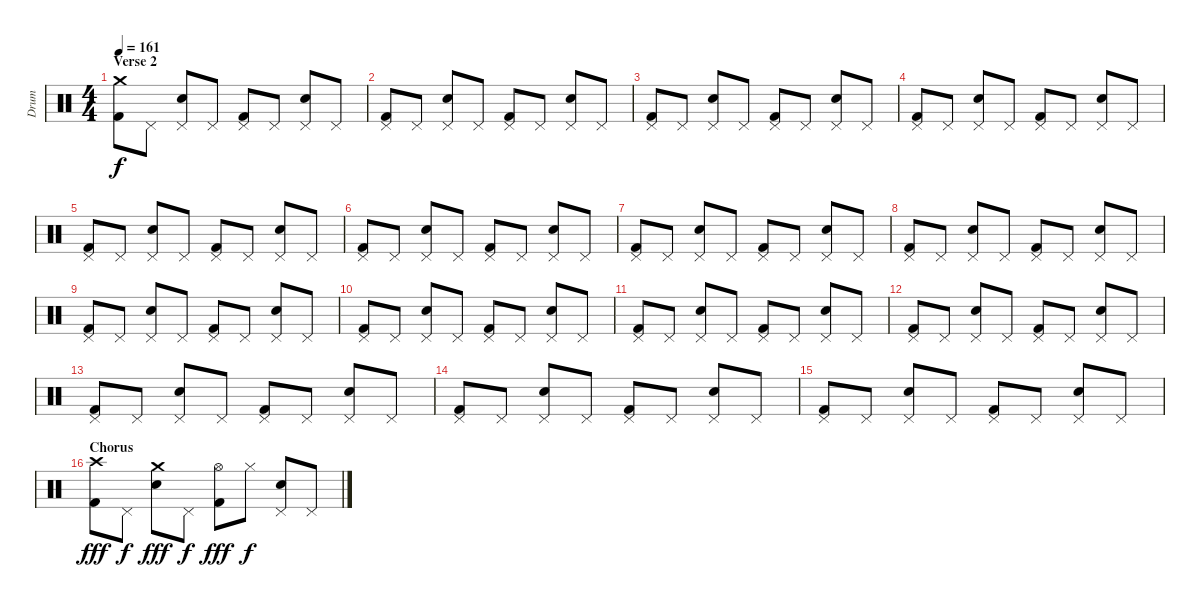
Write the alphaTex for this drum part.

\track ("Drum" "Drum") {instrument percussion}
\staff {score}
\articulation defaults
\ts (4 4)
\section ("" "Verse 2")
\tempo 161
\clef neutral
\ks c
("Crash medium (hit)" "Kick (hit) 2").8{dy f} "Pedal Hi-Hat (hit)".8 ("Pedal Hi-Hat (hit)" "Snare (hit) 2").8 "Pedal Hi-Hat (hit)".8 ("Pedal Hi-Hat (hit)" "Kick (hit) 2").8 "Pedal Hi-Hat (hit)".8 ("Pedal Hi-Hat (hit)" "Snare (hit) 2").8 "Pedal Hi-Hat (hit)".8 |
("Pedal Hi-Hat (hit)" "Kick (hit) 2").8 "Pedal Hi-Hat (hit)".8 ("Pedal Hi-Hat (hit)" "Snare (hit) 2").8 "Pedal Hi-Hat (hit)".8 ("Pedal Hi-Hat (hit)" "Kick (hit) 2").8 "Pedal Hi-Hat (hit)".8 ("Pedal Hi-Hat (hit)" "Snare (hit) 2").8 "Pedal Hi-Hat (hit)".8 |
("Pedal Hi-Hat (hit)" "Kick (hit) 2").8 "Pedal Hi-Hat (hit)".8 ("Pedal Hi-Hat (hit)" "Snare (hit) 2").8 "Pedal Hi-Hat (hit)".8 ("Pedal Hi-Hat (hit)" "Kick (hit) 2").8 "Pedal Hi-Hat (hit)".8 ("Pedal Hi-Hat (hit)" "Snare (hit) 2").8 "Pedal Hi-Hat (hit)".8 |
("Pedal Hi-Hat (hit)" "Kick (hit) 2").8 "Pedal Hi-Hat (hit)".8 ("Pedal Hi-Hat (hit)" "Snare (hit) 2").8 "Pedal Hi-Hat (hit)".8 ("Pedal Hi-Hat (hit)" "Kick (hit) 2").8 "Pedal Hi-Hat (hit)".8 ("Pedal Hi-Hat (hit)" "Snare (hit) 2").8 "Pedal Hi-Hat (hit)".8 |
("Pedal Hi-Hat (hit)" "Kick (hit) 2").8 "Pedal Hi-Hat (hit)".8 ("Pedal Hi-Hat (hit)" "Snare (hit) 2").8 "Pedal Hi-Hat (hit)".8 ("Pedal Hi-Hat (hit)" "Kick (hit) 2").8 "Pedal Hi-Hat (hit)".8 ("Pedal Hi-Hat (hit)" "Snare (hit) 2").8 "Pedal Hi-Hat (hit)".8 |
("Pedal Hi-Hat (hit)" "Kick (hit) 2").8 "Pedal Hi-Hat (hit)".8 ("Pedal Hi-Hat (hit)" "Snare (hit) 2").8 "Pedal Hi-Hat (hit)".8 ("Pedal Hi-Hat (hit)" "Kick (hit) 2").8 "Pedal Hi-Hat (hit)".8 ("Pedal Hi-Hat (hit)" "Snare (hit) 2").8 "Pedal Hi-Hat (hit)".8 |
("Pedal Hi-Hat (hit)" "Kick (hit) 2").8 "Pedal Hi-Hat (hit)".8 ("Pedal Hi-Hat (hit)" "Snare (hit) 2").8 "Pedal Hi-Hat (hit)".8 ("Pedal Hi-Hat (hit)" "Kick (hit) 2").8 "Pedal Hi-Hat (hit)".8 ("Pedal Hi-Hat (hit)" "Snare (hit) 2").8 "Pedal Hi-Hat (hit)".8 |
("Pedal Hi-Hat (hit)" "Kick (hit) 2").8 "Pedal Hi-Hat (hit)".8 ("Pedal Hi-Hat (hit)" "Snare (hit) 2").8 "Pedal Hi-Hat (hit)".8 ("Pedal Hi-Hat (hit)" "Kick (hit) 2").8 "Pedal Hi-Hat (hit)".8 ("Pedal Hi-Hat (hit)" "Snare (hit) 2").8 "Pedal Hi-Hat (hit)".8 |
("Pedal Hi-Hat (hit)" "Kick (hit) 2").8 "Pedal Hi-Hat (hit)".8 ("Pedal Hi-Hat (hit)" "Snare (hit) 2").8 "Pedal Hi-Hat (hit)".8 ("Pedal Hi-Hat (hit)" "Kick (hit) 2").8 "Pedal Hi-Hat (hit)".8 ("Pedal Hi-Hat (hit)" "Snare (hit) 2").8 "Pedal Hi-Hat (hit)".8 |
("Pedal Hi-Hat (hit)" "Kick (hit) 2").8 "Pedal Hi-Hat (hit)".8 ("Pedal Hi-Hat (hit)" "Snare (hit) 2").8 "Pedal Hi-Hat (hit)".8 ("Pedal Hi-Hat (hit)" "Kick (hit) 2").8 "Pedal Hi-Hat (hit)".8 ("Pedal Hi-Hat (hit)" "Snare (hit) 2").8 "Pedal Hi-Hat (hit)".8 |
("Pedal Hi-Hat (hit)" "Kick (hit) 2").8 "Pedal Hi-Hat (hit)".8 ("Pedal Hi-Hat (hit)" "Snare (hit) 2").8 "Pedal Hi-Hat (hit)".8 ("Pedal Hi-Hat (hit)" "Kick (hit) 2").8 "Pedal Hi-Hat (hit)".8 ("Pedal Hi-Hat (hit)" "Snare (hit) 2").8 "Pedal Hi-Hat (hit)".8 |
("Pedal Hi-Hat (hit)" "Kick (hit) 2").8 "Pedal Hi-Hat (hit)".8 ("Pedal Hi-Hat (hit)" "Snare (hit) 2").8 "Pedal Hi-Hat (hit)".8 ("Pedal Hi-Hat (hit)" "Kick (hit) 2").8 "Pedal Hi-Hat (hit)".8 ("Pedal Hi-Hat (hit)" "Snare (hit) 2").8 "Pedal Hi-Hat (hit)".8 |
("Pedal Hi-Hat (hit)" "Kick (hit) 2").8 "Pedal Hi-Hat (hit)".8 ("Pedal Hi-Hat (hit)" "Snare (hit) 2").8 "Pedal Hi-Hat (hit)".8 ("Pedal Hi-Hat (hit)" "Kick (hit) 2").8 "Pedal Hi-Hat (hit)".8 ("Pedal Hi-Hat (hit)" "Snare (hit) 2").8 "Pedal Hi-Hat (hit)".8 |
("Pedal Hi-Hat (hit)" "Kick (hit) 2").8 "Pedal Hi-Hat (hit)".8 ("Pedal Hi-Hat (hit)" "Snare (hit) 2").8 "Pedal Hi-Hat (hit)".8 ("Pedal Hi-Hat (hit)" "Kick (hit) 2").8 "Pedal Hi-Hat (hit)".8 ("Pedal Hi-Hat (hit)" "Snare (hit) 2").8 "Pedal Hi-Hat (hit)".8 |
("Pedal Hi-Hat (hit)" "Kick (hit) 2").8 "Pedal Hi-Hat (hit)".8 ("Pedal Hi-Hat (hit)" "Snare (hit) 2").8 "Pedal Hi-Hat (hit)".8 ("Pedal Hi-Hat (hit)" "Kick (hit) 2").8 "Pedal Hi-Hat (hit)".8 ("Pedal Hi-Hat (hit)" "Snare (hit) 2").8 "Pedal Hi-Hat (hit)".8 |
\section ("" "Chorus")
("Crash high (hit)" "Kick (hit) 2").8{dy fff} "Pedal Hi-Hat (hit)".8{dy f} ("Crash medium (hit)" "Snare (hit) 2").8{dy fff} "Pedal Hi-Hat (hit)".8{dy f} ("Hi-Hat (open)" "Kick (hit) 2").8{dy fff} "Hi-Hat (closed)".8{dy f} ("Pedal Hi-Hat (hit)" "Snare (hit) 2").8 "Pedal Hi-Hat (hit)".8
